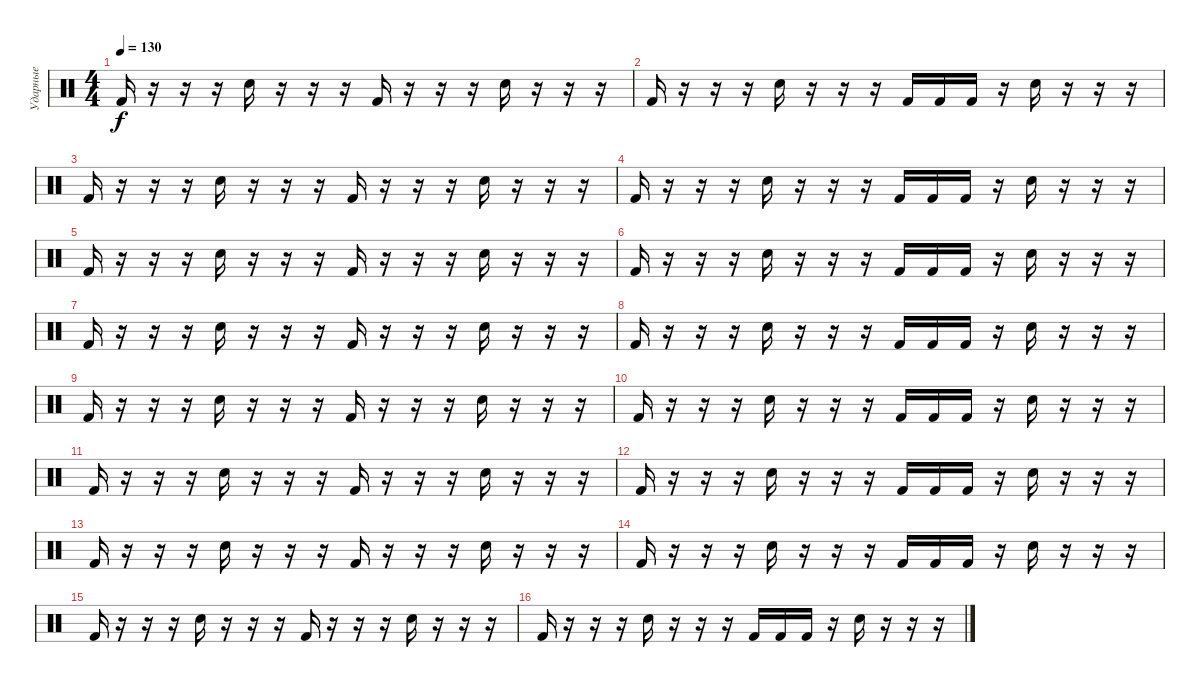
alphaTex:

\track ("Ударные" "Ударные") {instrument percussion}
\staff {score}
\articulation defaults
\ts (4 4)
\tempo 130
\clef neutral
\ks c "Kick (hit) 2".16{dy f}
r.16 r.16 r.16 "Electric Snare (hit)".16 r.16 r.16 r.16 "Kick (hit) 2".16 r.16 r.16 r.16 "Electric Snare (hit)".16 r.16 r.16 r.16 |
"Kick (hit) 2".16 r.16 r.16 r.16 "Electric Snare (hit)".16 r.16 r.16 r.16 "Kick (hit) 2".16 "Kick (hit) 2".16 "Kick (hit) 2".16 r.16 "Electric Snare (hit)".16 r.16 r.16 r.16 |
"Kick (hit) 2".16 r.16 r.16 r.16 "Electric Snare (hit)".16 r.16 r.16 r.16 "Kick (hit) 2".16 r.16 r.16 r.16 "Electric Snare (hit)".16 r.16 r.16 r.16 |
"Kick (hit) 2".16 r.16 r.16 r.16 "Electric Snare (hit)".16 r.16 r.16 r.16 "Kick (hit) 2".16 "Kick (hit) 2".16 "Kick (hit) 2".16 r.16 "Electric Snare (hit)".16 r.16 r.16 r.16 |
"Kick (hit) 2".16 r.16 r.16 r.16 "Electric Snare (hit)".16 r.16 r.16 r.16 "Kick (hit) 2".16 r.16 r.16 r.16 "Electric Snare (hit)".16 r.16 r.16 r.16 |
"Kick (hit) 2".16 r.16 r.16 r.16 "Electric Snare (hit)".16 r.16 r.16 r.16 "Kick (hit) 2".16 "Kick (hit) 2".16 "Kick (hit) 2".16 r.16 "Electric Snare (hit)".16 r.16 r.16 r.16 |
"Kick (hit) 2".16 r.16 r.16 r.16 "Electric Snare (hit)".16 r.16 r.16 r.16 "Kick (hit) 2".16 r.16 r.16 r.16 "Electric Snare (hit)".16 r.16 r.16 r.16 |
"Kick (hit) 2".16 r.16 r.16 r.16 "Electric Snare (hit)".16 r.16 r.16 r.16 "Kick (hit) 2".16 "Kick (hit) 2".16 "Kick (hit) 2".16 r.16 "Electric Snare (hit)".16 r.16 r.16 r.16 |
"Kick (hit) 2".16 r.16 r.16 r.16 "Electric Snare (hit)".16 r.16 r.16 r.16 "Kick (hit) 2".16 r.16 r.16 r.16 "Electric Snare (hit)".16 r.16 r.16 r.16 |
"Kick (hit) 2".16 r.16 r.16 r.16 "Electric Snare (hit)".16 r.16 r.16 r.16 "Kick (hit) 2".16 "Kick (hit) 2".16 "Kick (hit) 2".16 r.16 "Electric Snare (hit)".16 r.16 r.16 r.16 |
"Kick (hit) 2".16 r.16 r.16 r.16 "Electric Snare (hit)".16 r.16 r.16 r.16 "Kick (hit) 2".16 r.16 r.16 r.16 "Electric Snare (hit)".16 r.16 r.16 r.16 |
"Kick (hit) 2".16 r.16 r.16 r.16 "Electric Snare (hit)".16 r.16 r.16 r.16 "Kick (hit) 2".16 "Kick (hit) 2".16 "Kick (hit) 2".16 r.16 "Electric Snare (hit)".16 r.16 r.16 r.16 |
"Kick (hit) 2".16 r.16 r.16 r.16 "Electric Snare (hit)".16 r.16 r.16 r.16 "Kick (hit) 2".16 r.16 r.16 r.16 "Electric Snare (hit)".16 r.16 r.16 r.16 |
"Kick (hit) 2".16 r.16 r.16 r.16 "Electric Snare (hit)".16 r.16 r.16 r.16 "Kick (hit) 2".16 "Kick (hit) 2".16 "Kick (hit) 2".16 r.16 "Electric Snare (hit)".16 r.16 r.16 r.16 |
"Kick (hit) 2".16 r.16 r.16 r.16 "Electric Snare (hit)".16 r.16 r.16 r.16 "Kick (hit) 2".16 r.16 r.16 r.16 "Electric Snare (hit)".16 r.16 r.16 r.16 |
"Kick (hit) 2".16 r.16 r.16 r.16 "Electric Snare (hit)".16 r.16 r.16 r.16 "Kick (hit) 2".16 "Kick (hit) 2".16 "Kick (hit) 2".16 r.16 "Electric Snare (hit)".16 r.16 r.16 r.16
